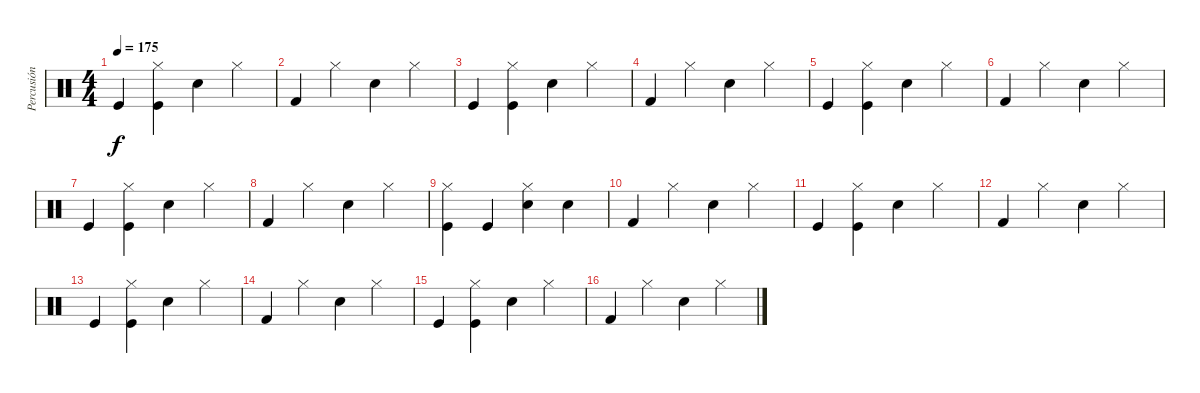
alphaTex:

\track ("Percusión" "Percusión") {instrument percussion}
\staff {score}
\articulation defaults
\ts (4 4)
\tempo 175
\clef neutral
\ks c "Kick (hit)".4{dy f}
("Kick (hit)" "Hi-Hat (closed)").4 "Electric Snare (hit)".4 "Hi-Hat (closed)".4 |
"Kick (hit) 2".4 "Hi-Hat (closed)".4 "Snare (hit) 2".4 "Hi-Hat (closed)".4 |
"Kick (hit)".4 ("Kick (hit)" "Hi-Hat (closed)").4 "Electric Snare (hit)".4 "Hi-Hat (closed)".4 |
"Kick (hit) 2".4 "Hi-Hat (closed)".4 "Snare (hit) 2".4 "Hi-Hat (closed)".4 |
"Kick (hit)".4 ("Kick (hit)" "Hi-Hat (closed)").4 "Electric Snare (hit)".4 "Hi-Hat (closed)".4 |
"Kick (hit) 2".4 "Hi-Hat (closed)".4 "Snare (hit) 2".4 "Hi-Hat (closed)".4 |
"Kick (hit)".4 ("Kick (hit)" "Hi-Hat (closed)").4 "Electric Snare (hit)".4 "Hi-Hat (closed)".4 |
"Kick (hit) 2".4 "Hi-Hat (closed)".4 "Snare (hit) 2".4 "Hi-Hat (closed)".4 |
("Kick (hit)" "Hi-Hat (closed)").4 "Kick (hit)".4 ("Electric Snare (hit)" "Hi-Hat (closed)").4 "Snare (hit) 2".4 |
"Kick (hit) 2".4 "Hi-Hat (closed)".4 "Snare (hit) 2".4 "Hi-Hat (closed)".4 |
"Kick (hit)".4 ("Kick (hit)" "Hi-Hat (closed)").4 "Electric Snare (hit)".4 "Hi-Hat (closed)".4 |
"Kick (hit) 2".4 "Hi-Hat (closed)".4 "Snare (hit) 2".4 "Hi-Hat (closed)".4 |
"Kick (hit)".4 ("Kick (hit)" "Hi-Hat (closed)").4 "Electric Snare (hit)".4 "Hi-Hat (closed)".4 |
"Kick (hit) 2".4 "Hi-Hat (closed)".4 "Snare (hit) 2".4 "Hi-Hat (closed)".4 |
"Kick (hit)".4 ("Kick (hit)" "Hi-Hat (closed)").4 "Electric Snare (hit)".4 "Hi-Hat (closed)".4 |
"Kick (hit) 2".4 "Hi-Hat (closed)".4 "Snare (hit) 2".4 "Hi-Hat (closed)".4
